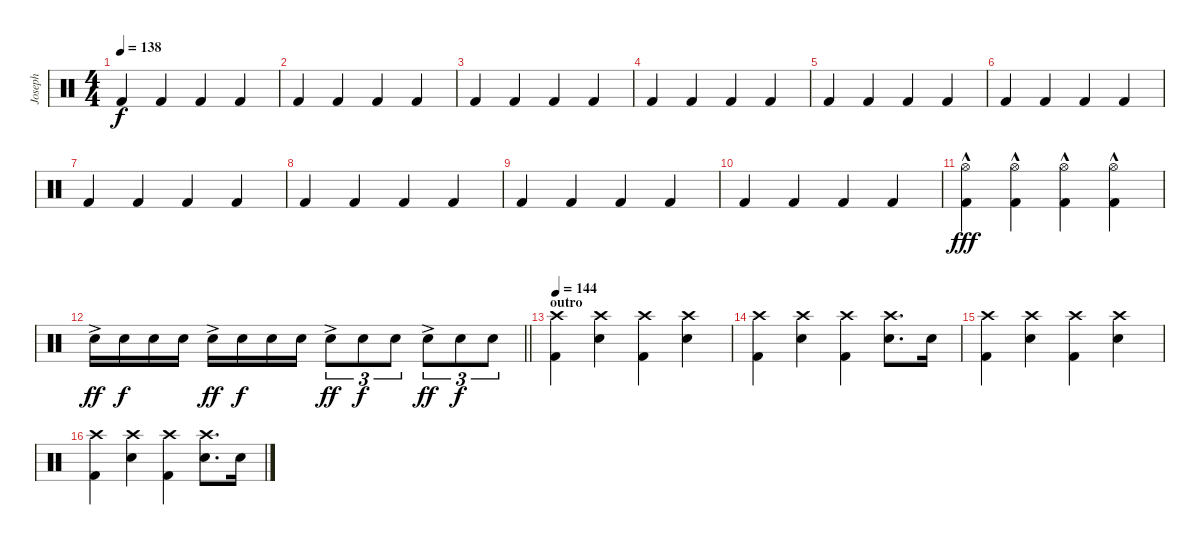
\track ("Joseph" "Joseph") {instrument percussion}
\staff {score}
\articulation defaults
\ts (4 4)
\tempo 138
\clef neutral
\ks c "Kick (hit) 2".4{dy f} "Kick (hit) 2".4 "Kick (hit) 2".4 "Kick (hit) 2".4
|
"Kick (hit) 2".4 "Kick (hit) 2".4 "Kick (hit) 2".4 "Kick (hit) 2".4 |
"Kick (hit) 2".4 "Kick (hit) 2".4 "Kick (hit) 2".4 "Kick (hit) 2".4 |
"Kick (hit) 2".4 "Kick (hit) 2".4 "Kick (hit) 2".4 "Kick (hit) 2".4 |
"Kick (hit) 2".4 "Kick (hit) 2".4 "Kick (hit) 2".4 "Kick (hit) 2".4 |
"Kick (hit) 2".4 "Kick (hit) 2".4 "Kick (hit) 2".4 "Kick (hit) 2".4 |
"Kick (hit) 2".4 "Kick (hit) 2".4 "Kick (hit) 2".4 "Kick (hit) 2".4 |
"Kick (hit) 2".4 "Kick (hit) 2".4 "Kick (hit) 2".4 "Kick (hit) 2".4 |
"Kick (hit) 2".4 "Kick (hit) 2".4 "Kick (hit) 2".4 "Kick (hit) 2".4 |
"Kick (hit) 2".4 "Kick (hit) 2".4 "Kick (hit) 2".4 "Kick (hit) 2".4 |
("Kick (hit) 2" "Hi-Hat (open)"{hac}).4{dy fff} ("Kick (hit) 2" "Hi-Hat (open)"{hac}).4 ("Kick (hit) 2" "Hi-Hat (open)"{hac}).4 ("Kick (hit) 2" "Hi-Hat (open)"{hac}).4 |
\barLineRight lightlight "Electric Snare (hit)"{ac}.16{dy ff} "Electric Snare (hit)".16{dy f} "Electric Snare (hit)".16 "Electric Snare (hit)".16 "Electric Snare (hit)"{ac}.16{dy ff} "Electric Snare (hit)".16{dy f} "Electric Snare (hit)".16 "Electric Snare (hit)".16 "Electric Snare (hit)"{ac}.8{tu (3 2) dy ff} "Electric Snare (hit)".8{tu (3 2) dy f} "Electric Snare (hit)".8{tu (3 2)} "Electric Snare (hit)"{ac}.8{tu (3 2) dy ff} "Electric Snare (hit)".8{tu (3 2) dy f} "Electric Snare (hit)".8{tu (3 2)}
|
\section ("" "outro")
\tempo 144
("Crash high (hit)" "Kick (hit) 2").4 ("Crash high (hit)" "Electric Snare (hit)").4 ("Crash high (hit)" "Kick (hit) 2").4 ("Crash high (hit)" "Electric Snare (hit)").4 |
("Crash high (hit)" "Kick (hit) 2").4 ("Crash high (hit)" "Electric Snare (hit)").4 ("Crash high (hit)" "Kick (hit) 2").4 ("Crash high (hit)" "Electric Snare (hit)").8{d} "Electric Snare (hit)".16 |
("Crash high (hit)" "Kick (hit) 2").4 ("Crash high (hit)" "Electric Snare (hit)").4 ("Crash high (hit)" "Kick (hit) 2").4 ("Crash high (hit)" "Electric Snare (hit)").4 |
("Crash high (hit)" "Kick (hit) 2").4 ("Crash high (hit)" "Electric Snare (hit)").4 ("Crash high (hit)" "Kick (hit) 2").4 ("Crash high (hit)" "Electric Snare (hit)").8{d} "Electric Snare (hit)".16
